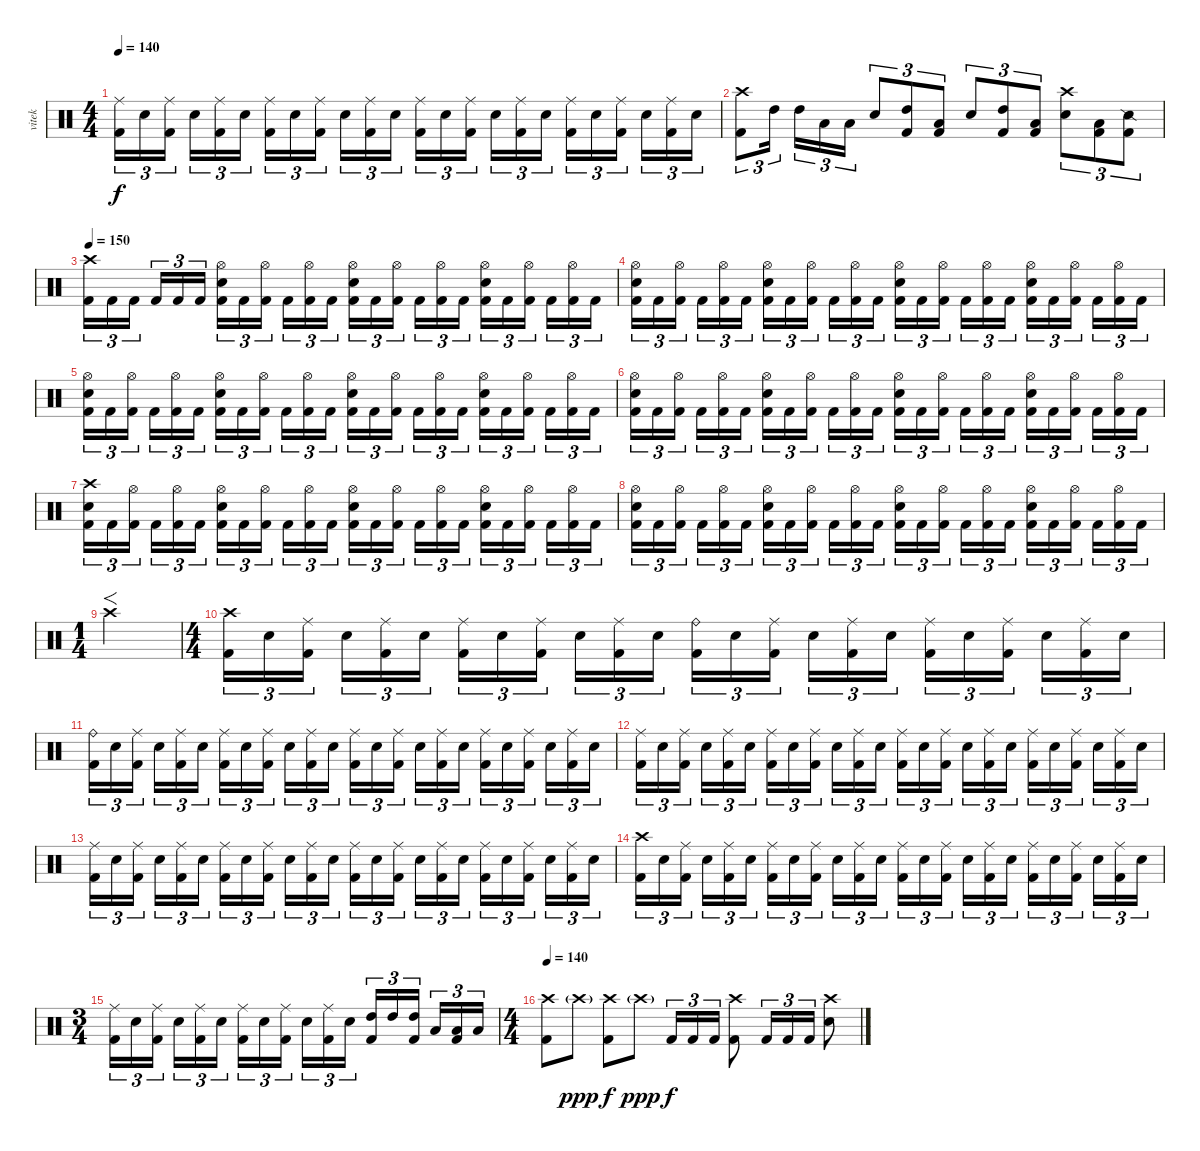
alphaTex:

\track ("vitek" "vitek") {instrument percussion}
\staff {score}
\articulation defaults
\ts (4 4)
\tempo 140
\clef neutral
\ks c
("Ride (middle)" "Kick (hit) 2").16{tu (3 2) dy f} "Electric Snare (hit)".16{tu (3 2)} ("Ride (middle)" "Kick (hit) 2").16{tu (3 2)} "Electric Snare (hit)".16{tu (3 2)} ("Ride (middle)" "Kick (hit) 2").16{tu (3 2)} "Electric Snare (hit)".16{tu (3 2)} ("Ride (middle)" "Kick (hit) 2").16{tu (3 2)} "Electric Snare (hit)".16{tu (3 2)} ("Ride (middle)" "Kick (hit) 2").16{tu (3 2)} "Electric Snare (hit)".16{tu (3 2)} ("Ride (middle)" "Kick (hit) 2").16{tu (3 2)} "Electric Snare (hit)".16{tu (3 2)} ("Ride (middle)" "Kick (hit) 2").16{tu (3 2)} "Electric Snare (hit)".16{tu (3 2)} ("Ride (middle)" "Kick (hit) 2").16{tu (3 2)} "Electric Snare (hit)".16{tu (3 2)} ("Ride (middle)" "Kick (hit) 2").16{tu (3 2)} "Electric Snare (hit)".16{tu (3 2)} ("Ride (middle)" "Kick (hit) 2").16{tu (3 2)} "Electric Snare (hit)".16{tu (3 2)} ("Ride (middle)" "Kick (hit) 2").16{tu (3 2)} "Electric Snare (hit)".16{tu (3 2)} ("Ride (middle)" "Kick (hit) 2").16{tu (3 2)} "Electric Snare (hit)".16{tu (3 2)} |
("Crash high (hit)" "Kick (hit) 2").8{tu (3 2)} "High Tom (hit)".16{tu (3 2)} "High Tom (hit)".16{tu (3 2)} "Low Tom (hit)".16{tu (3 2)} "Low Tom (hit)".16{tu (3 2)} "Electric Snare (hit)".8{tu (3 2)} ("High Tom (hit)" "Kick (hit) 2").8{tu (3 2)} ("Low Tom (hit)" "Kick (hit) 2").8{tu (3 2)} "Electric Snare (hit)".8{tu (3 2)} ("High Tom (hit)" "Kick (hit) 2").8{tu (3 2)} ("Low Tom (hit)" "Kick (hit) 2").8{tu (3 2)} ("Crash high (hit)" "Electric Snare (hit)").8{tu (3 2)} ("Low Tom (hit)" "Kick (hit) 2").8{tu (3 2)} ("Snare (side stick) 2" "Kick (hit) 2").8{tu (3 2)} |
\section ("" "")
\tempo 150
("Crash high (hit)" "Kick (hit) 2").16{tu (3 2)} "Kick (hit) 2".16{tu (3 2)} "Kick (hit) 2".16{tu (3 2)} "Kick (hit) 2".16{tu (3 2)} "Kick (hit) 2".16{tu (3 2)} "Kick (hit) 2".16{tu (3 2)} ("Hi-Hat (open)" "Electric Snare (hit)" "Kick (hit) 2").16{tu (3 2)} "Kick (hit) 2".16{tu (3 2)} ("Hi-Hat (open)" "Kick (hit) 2").16{tu (3 2)} "Kick (hit) 2".16{tu (3 2)} ("Hi-Hat (open)" "Kick (hit) 2").16{tu (3 2)} "Kick (hit) 2".16{tu (3 2)} ("Hi-Hat (open)" "Electric Snare (hit)" "Kick (hit) 2").16{tu (3 2)} "Kick (hit) 2".16{tu (3 2)} ("Hi-Hat (open)" "Kick (hit) 2").16{tu (3 2)} "Kick (hit) 2".16{tu (3 2)} ("Hi-Hat (open)" "Kick (hit) 2").16{tu (3 2)} "Kick (hit) 2".16{tu (3 2)} ("Hi-Hat (open)" "Electric Snare (hit)" "Kick (hit) 2").16{tu (3 2)} "Kick (hit) 2".16{tu (3 2)} ("Hi-Hat (open)" "Kick (hit) 2").16{tu (3 2)} "Kick (hit) 2".16{tu (3 2)} ("Hi-Hat (open)" "Kick (hit) 2").16{tu (3 2)} "Kick (hit) 2".16{tu (3 2)} |
("Hi-Hat (open)" "Electric Snare (hit)" "Kick (hit) 2").16{tu (3 2)} "Kick (hit) 2".16{tu (3 2)} ("Hi-Hat (open)" "Kick (hit) 2").16{tu (3 2)} "Kick (hit) 2".16{tu (3 2)} ("Hi-Hat (open)" "Kick (hit) 2").16{tu (3 2)} "Kick (hit) 2".16{tu (3 2)} ("Hi-Hat (open)" "Electric Snare (hit)" "Kick (hit) 2").16{tu (3 2)} "Kick (hit) 2".16{tu (3 2)} ("Hi-Hat (open)" "Kick (hit) 2").16{tu (3 2)} "Kick (hit) 2".16{tu (3 2)} ("Hi-Hat (open)" "Kick (hit) 2").16{tu (3 2)} "Kick (hit) 2".16{tu (3 2)} ("Hi-Hat (open)" "Electric Snare (hit)" "Kick (hit) 2").16{tu (3 2)} "Kick (hit) 2".16{tu (3 2)} ("Hi-Hat (open)" "Kick (hit) 2").16{tu (3 2)} "Kick (hit) 2".16{tu (3 2)} ("Hi-Hat (open)" "Kick (hit) 2").16{tu (3 2)} "Kick (hit) 2".16{tu (3 2)} ("Hi-Hat (open)" "Electric Snare (hit)" "Kick (hit) 2").16{tu (3 2)} "Kick (hit) 2".16{tu (3 2)} ("Hi-Hat (open)" "Kick (hit) 2").16{tu (3 2)} "Kick (hit) 2".16{tu (3 2)} ("Hi-Hat (open)" "Kick (hit) 2").16{tu (3 2)} "Kick (hit) 2".16{tu (3 2)} |
("Hi-Hat (open)" "Electric Snare (hit)" "Kick (hit) 2").16{tu (3 2)} "Kick (hit) 2".16{tu (3 2)} ("Hi-Hat (open)" "Kick (hit) 2").16{tu (3 2)} "Kick (hit) 2".16{tu (3 2)} ("Hi-Hat (open)" "Kick (hit) 2").16{tu (3 2)} "Kick (hit) 2".16{tu (3 2)} ("Hi-Hat (open)" "Electric Snare (hit)" "Kick (hit) 2").16{tu (3 2)} "Kick (hit) 2".16{tu (3 2)} ("Hi-Hat (open)" "Kick (hit) 2").16{tu (3 2)} "Kick (hit) 2".16{tu (3 2)} ("Hi-Hat (open)" "Kick (hit) 2").16{tu (3 2)} "Kick (hit) 2".16{tu (3 2)} ("Hi-Hat (open)" "Electric Snare (hit)" "Kick (hit) 2").16{tu (3 2)} "Kick (hit) 2".16{tu (3 2)} ("Hi-Hat (open)" "Kick (hit) 2").16{tu (3 2)} "Kick (hit) 2".16{tu (3 2)} ("Hi-Hat (open)" "Kick (hit) 2").16{tu (3 2)} "Kick (hit) 2".16{tu (3 2)} ("Hi-Hat (open)" "Electric Snare (hit)" "Kick (hit) 2").16{tu (3 2)} "Kick (hit) 2".16{tu (3 2)} ("Hi-Hat (open)" "Kick (hit) 2").16{tu (3 2)} "Kick (hit) 2".16{tu (3 2)} ("Hi-Hat (open)" "Kick (hit) 2").16{tu (3 2)} "Kick (hit) 2".16{tu (3 2)} |
("Hi-Hat (open)" "Electric Snare (hit)" "Kick (hit) 2").16{tu (3 2)} "Kick (hit) 2".16{tu (3 2)} ("Hi-Hat (open)" "Kick (hit) 2").16{tu (3 2)} "Kick (hit) 2".16{tu (3 2)} ("Hi-Hat (open)" "Kick (hit) 2").16{tu (3 2)} "Kick (hit) 2".16{tu (3 2)} ("Hi-Hat (open)" "Electric Snare (hit)" "Kick (hit) 2").16{tu (3 2)} "Kick (hit) 2".16{tu (3 2)} ("Hi-Hat (open)" "Kick (hit) 2").16{tu (3 2)} "Kick (hit) 2".16{tu (3 2)} ("Hi-Hat (open)" "Kick (hit) 2").16{tu (3 2)} "Kick (hit) 2".16{tu (3 2)} ("Hi-Hat (open)" "Electric Snare (hit)" "Kick (hit) 2").16{tu (3 2)} "Kick (hit) 2".16{tu (3 2)} ("Hi-Hat (open)" "Kick (hit) 2").16{tu (3 2)} "Kick (hit) 2".16{tu (3 2)} ("Hi-Hat (open)" "Kick (hit) 2").16{tu (3 2)} "Kick (hit) 2".16{tu (3 2)} ("Hi-Hat (open)" "Electric Snare (hit)" "Kick (hit) 2").16{tu (3 2)} "Kick (hit) 2".16{tu (3 2)} ("Hi-Hat (open)" "Kick (hit) 2").16{tu (3 2)} "Kick (hit) 2".16{tu (3 2)} ("Hi-Hat (open)" "Kick (hit) 2").16{tu (3 2)} "Kick (hit) 2".16{tu (3 2)} |
("Crash high (hit)" "Electric Snare (hit)" "Kick (hit) 2").16{tu (3 2)} "Kick (hit) 2".16{tu (3 2)} ("Hi-Hat (open)" "Kick (hit) 2").16{tu (3 2)} "Kick (hit) 2".16{tu (3 2)} ("Hi-Hat (open)" "Kick (hit) 2").16{tu (3 2)} "Kick (hit) 2".16{tu (3 2)} ("Hi-Hat (open)" "Electric Snare (hit)" "Kick (hit) 2").16{tu (3 2)} "Kick (hit) 2".16{tu (3 2)} ("Hi-Hat (open)" "Kick (hit) 2").16{tu (3 2)} "Kick (hit) 2".16{tu (3 2)} ("Hi-Hat (open)" "Kick (hit) 2").16{tu (3 2)} "Kick (hit) 2".16{tu (3 2)} ("Hi-Hat (open)" "Electric Snare (hit)" "Kick (hit) 2").16{tu (3 2)} "Kick (hit) 2".16{tu (3 2)} ("Hi-Hat (open)" "Kick (hit) 2").16{tu (3 2)} "Kick (hit) 2".16{tu (3 2)} ("Hi-Hat (open)" "Kick (hit) 2").16{tu (3 2)} "Kick (hit) 2".16{tu (3 2)} ("Hi-Hat (open)" "Electric Snare (hit)" "Kick (hit) 2").16{tu (3 2)} "Kick (hit) 2".16{tu (3 2)} ("Hi-Hat (open)" "Kick (hit) 2").16{tu (3 2)} "Kick (hit) 2".16{tu (3 2)} ("Hi-Hat (open)" "Kick (hit) 2").16{tu (3 2)} "Kick (hit) 2".16{tu (3 2)} |
("Hi-Hat (open)" "Electric Snare (hit)" "Kick (hit) 2").16{tu (3 2)} "Kick (hit) 2".16{tu (3 2)} ("Hi-Hat (open)" "Kick (hit) 2").16{tu (3 2)} "Kick (hit) 2".16{tu (3 2)} ("Hi-Hat (open)" "Kick (hit) 2").16{tu (3 2)} "Kick (hit) 2".16{tu (3 2)} ("Hi-Hat (open)" "Electric Snare (hit)" "Kick (hit) 2").16{tu (3 2)} "Kick (hit) 2".16{tu (3 2)} ("Hi-Hat (open)" "Kick (hit) 2").16{tu (3 2)} "Kick (hit) 2".16{tu (3 2)} ("Hi-Hat (open)" "Kick (hit) 2").16{tu (3 2)} "Kick (hit) 2".16{tu (3 2)} ("Hi-Hat (open)" "Electric Snare (hit)" "Kick (hit) 2").16{tu (3 2)} "Kick (hit) 2".16{tu (3 2)} ("Hi-Hat (open)" "Kick (hit) 2").16{tu (3 2)} "Kick (hit) 2".16{tu (3 2)} ("Hi-Hat (open)" "Kick (hit) 2").16{tu (3 2)} "Kick (hit) 2".16{tu (3 2)} ("Hi-Hat (open)" "Electric Snare (hit)" "Kick (hit) 2").16{tu (3 2)} "Kick (hit) 2".16{tu (3 2)} ("Hi-Hat (open)" "Kick (hit) 2").16{tu (3 2)} "Kick (hit) 2".16{tu (3 2)} ("Hi-Hat (open)" "Kick (hit) 2").16{tu (3 2)} "Kick (hit) 2".16{tu (3 2)} |
\ts (1 4)
"Crash high (hit)".4{f} |
\ts (4 4)
("Crash high (hit)" "Kick (hit) 2").16{tu (3 2)} "Electric Snare (hit)".16{tu (3 2)} ("Ride (middle)" "Kick (hit) 2").16{tu (3 2)} "Electric Snare (hit)".16{tu (3 2)} ("Ride (middle)" "Kick (hit) 2").16{tu (3 2)} "Electric Snare (hit)".16{tu (3 2)} ("Ride (middle)" "Kick (hit) 2").16{tu (3 2)} "Electric Snare (hit)".16{tu (3 2)} ("Ride (middle)" "Kick (hit) 2").16{tu (3 2)} "Electric Snare (hit)".16{tu (3 2)} ("Ride (middle)" "Kick (hit) 2").16{tu (3 2)} "Electric Snare (hit)".16{tu (3 2)} ("Ride (bell)" "Kick (hit) 2").16{tu (3 2)} "Electric Snare (hit)".16{tu (3 2)} ("Ride (middle)" "Kick (hit) 2").16{tu (3 2)} "Electric Snare (hit)".16{tu (3 2)} ("Ride (middle)" "Kick (hit) 2").16{tu (3 2)} "Electric Snare (hit)".16{tu (3 2)} ("Ride (middle)" "Kick (hit) 2").16{tu (3 2)} "Electric Snare (hit)".16{tu (3 2)} ("Ride (middle)" "Kick (hit) 2").16{tu (3 2)} "Electric Snare (hit)".16{tu (3 2)} ("Ride (middle)" "Kick (hit) 2").16{tu (3 2)} "Electric Snare (hit)".16{tu (3 2)} |
("Ride (bell)" "Kick (hit) 2").16{tu (3 2)} "Electric Snare (hit)".16{tu (3 2)} ("Ride (middle)" "Kick (hit) 2").16{tu (3 2)} "Electric Snare (hit)".16{tu (3 2)} ("Ride (middle)" "Kick (hit) 2").16{tu (3 2)} "Electric Snare (hit)".16{tu (3 2)} ("Ride (middle)" "Kick (hit) 2").16{tu (3 2)} "Electric Snare (hit)".16{tu (3 2)} ("Ride (middle)" "Kick (hit) 2").16{tu (3 2)} "Electric Snare (hit)".16{tu (3 2)} ("Ride (middle)" "Kick (hit) 2").16{tu (3 2)} "Electric Snare (hit)".16{tu (3 2)} ("Ride (middle)" "Kick (hit) 2").16{tu (3 2)} "Electric Snare (hit)".16{tu (3 2)} ("Ride (middle)" "Kick (hit) 2").16{tu (3 2)} "Electric Snare (hit)".16{tu (3 2)} ("Ride (middle)" "Kick (hit) 2").16{tu (3 2)} "Electric Snare (hit)".16{tu (3 2)} ("Ride (middle)" "Kick (hit) 2").16{tu (3 2)} "Electric Snare (hit)".16{tu (3 2)} ("Ride (middle)" "Kick (hit) 2").16{tu (3 2)} "Electric Snare (hit)".16{tu (3 2)} ("Ride (middle)" "Kick (hit) 2").16{tu (3 2)} "Electric Snare (hit)".16{tu (3 2)} |
("Ride (middle)" "Kick (hit) 2").16{tu (3 2)} "Electric Snare (hit)".16{tu (3 2)} ("Ride (middle)" "Kick (hit) 2").16{tu (3 2)} "Electric Snare (hit)".16{tu (3 2)} ("Ride (middle)" "Kick (hit) 2").16{tu (3 2)} "Electric Snare (hit)".16{tu (3 2)} ("Ride (middle)" "Kick (hit) 2").16{tu (3 2)} "Electric Snare (hit)".16{tu (3 2)} ("Ride (middle)" "Kick (hit) 2").16{tu (3 2)} "Electric Snare (hit)".16{tu (3 2)} ("Ride (middle)" "Kick (hit) 2").16{tu (3 2)} "Electric Snare (hit)".16{tu (3 2)} ("Ride (middle)" "Kick (hit) 2").16{tu (3 2)} "Electric Snare (hit)".16{tu (3 2)} ("Ride (middle)" "Kick (hit) 2").16{tu (3 2)} "Electric Snare (hit)".16{tu (3 2)} ("Ride (middle)" "Kick (hit) 2").16{tu (3 2)} "Electric Snare (hit)".16{tu (3 2)} ("Ride (middle)" "Kick (hit) 2").16{tu (3 2)} "Electric Snare (hit)".16{tu (3 2)} ("Ride (middle)" "Kick (hit) 2").16{tu (3 2)} "Electric Snare (hit)".16{tu (3 2)} ("Ride (middle)" "Kick (hit) 2").16{tu (3 2)} "Electric Snare (hit)".16{tu (3 2)} |
("Ride (middle)" "Kick (hit) 2").16{tu (3 2)} "Electric Snare (hit)".16{tu (3 2)} ("Ride (middle)" "Kick (hit) 2").16{tu (3 2)} "Electric Snare (hit)".16{tu (3 2)} ("Ride (middle)" "Kick (hit) 2").16{tu (3 2)} "Electric Snare (hit)".16{tu (3 2)} ("Ride (middle)" "Kick (hit) 2").16{tu (3 2)} "Electric Snare (hit)".16{tu (3 2)} ("Ride (middle)" "Kick (hit) 2").16{tu (3 2)} "Electric Snare (hit)".16{tu (3 2)} ("Ride (middle)" "Kick (hit) 2").16{tu (3 2)} "Electric Snare (hit)".16{tu (3 2)} ("Ride (middle)" "Kick (hit) 2").16{tu (3 2)} "Electric Snare (hit)".16{tu (3 2)} ("Ride (middle)" "Kick (hit) 2").16{tu (3 2)} "Electric Snare (hit)".16{tu (3 2)} ("Ride (middle)" "Kick (hit) 2").16{tu (3 2)} "Electric Snare (hit)".16{tu (3 2)} ("Ride (middle)" "Kick (hit) 2").16{tu (3 2)} "Electric Snare (hit)".16{tu (3 2)} ("Ride (middle)" "Kick (hit) 2").16{tu (3 2)} "Electric Snare (hit)".16{tu (3 2)} ("Ride (middle)" "Kick (hit) 2").16{tu (3 2)} "Electric Snare (hit)".16{tu (3 2)} |
("Crash high (hit)" "Kick (hit) 2").16{tu (3 2)} "Electric Snare (hit)".16{tu (3 2)} ("Ride (middle)" "Kick (hit) 2").16{tu (3 2)} "Electric Snare (hit)".16{tu (3 2)} ("Ride (middle)" "Kick (hit) 2").16{tu (3 2)} "Electric Snare (hit)".16{tu (3 2)} ("Ride (middle)" "Kick (hit) 2").16{tu (3 2)} "Electric Snare (hit)".16{tu (3 2)} ("Ride (middle)" "Kick (hit) 2").16{tu (3 2)} "Electric Snare (hit)".16{tu (3 2)} ("Ride (middle)" "Kick (hit) 2").16{tu (3 2)} "Electric Snare (hit)".16{tu (3 2)} ("Ride (middle)" "Kick (hit) 2").16{tu (3 2)} "Electric Snare (hit)".16{tu (3 2)} ("Ride (middle)" "Kick (hit) 2").16{tu (3 2)} "Electric Snare (hit)".16{tu (3 2)} ("Ride (middle)" "Kick (hit) 2").16{tu (3 2)} "Electric Snare (hit)".16{tu (3 2)} ("Ride (middle)" "Kick (hit) 2").16{tu (3 2)} "Electric Snare (hit)".16{tu (3 2)} ("Ride (middle)" "Kick (hit) 2").16{tu (3 2)} "Electric Snare (hit)".16{tu (3 2)} ("Ride (middle)" "Kick (hit) 2").16{tu (3 2)} "Electric Snare (hit)".16{tu (3 2)} |
\ts (3 4)
("Ride (middle)" "Kick (hit) 2").16{tu (3 2)} "Electric Snare (hit)".16{tu (3 2)} ("Ride (middle)" "Kick (hit) 2").16{tu (3 2)} "Electric Snare (hit)".16{tu (3 2)} ("Ride (middle)" "Kick (hit) 2").16{tu (3 2)} "Electric Snare (hit)".16{tu (3 2)} ("Ride (middle)" "Kick (hit) 2").16{tu (3 2)} "Electric Snare (hit)".16{tu (3 2)} ("Ride (middle)" "Kick (hit) 2").16{tu (3 2)} "Electric Snare (hit)".16{tu (3 2)} ("Ride (middle)" "Kick (hit) 2").16{tu (3 2)} "Electric Snare (hit)".16{tu (3 2)} ("High Tom (hit)" "Kick (hit) 2").16{tu (3 2)} "High Tom (hit)".16{tu (3 2)} ("High Tom (hit)" "Kick (hit) 2").16{tu (3 2)} "Low Tom (hit)".16{tu (3 2)} ("Low Tom (hit)" "Kick (hit) 2").16{tu (3 2)} "Low Tom (hit)".16{tu (3 2)} |
\ts (4 4)
\section ("" "")
\tempo 140
("Crash high (hit)"{pm} "Kick (hit) 2").8 "Crash high (hit)"{g}.8{dy ppp} ("Crash high (hit)"{pm} "Kick (hit) 2").8{dy f} "Crash high (hit)"{g}.8{dy ppp} "Kick (hit) 2".16{tu (3 2) dy f} "Kick (hit) 2".16{tu (3 2)} "Kick (hit) 2".16{tu (3 2)} ("Crash high (hit)" "Kick (hit) 2").8 "Kick (hit) 2".16{tu (3 2)} "Kick (hit) 2".16{tu (3 2)} "Kick (hit) 2".16{tu (3 2)} ("Crash high (hit)" "Electric Snare (hit)").8
